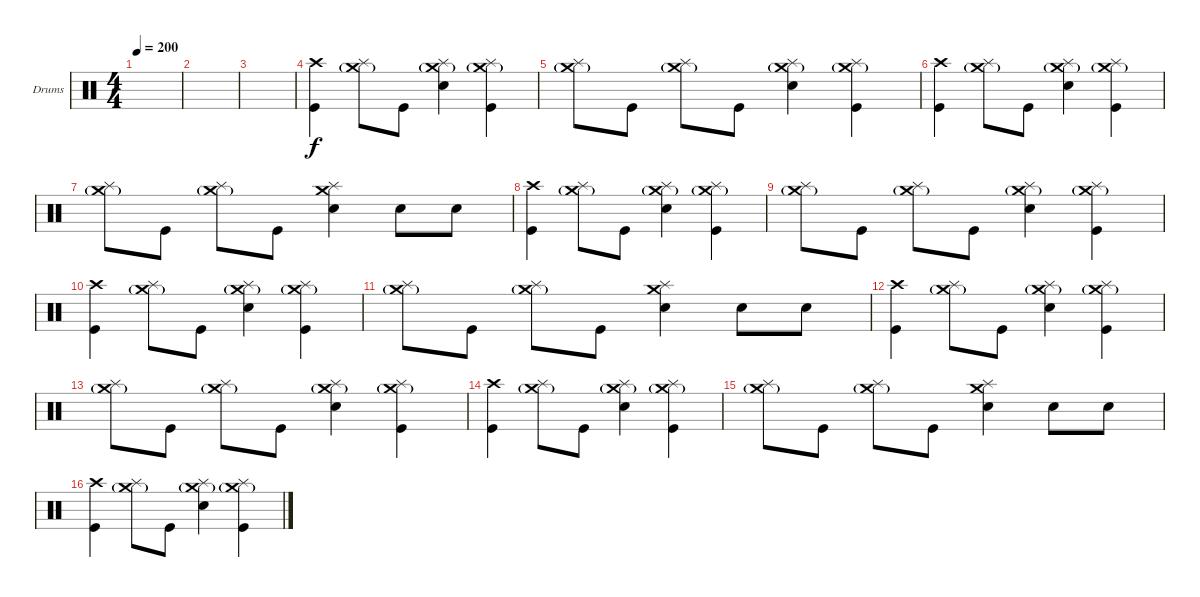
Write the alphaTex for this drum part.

\bracketExtendMode groupsimilarinstruments
\firstSystemTrackNameOrientation horizontal
\otherSystemsTrackNameOrientation horizontal
\track ("Canadien" "Drums") {instrument percussion}
\staff {score}
\articulation defaults
\ts (4 4)
\tempo 200
\clef neutral
\ks c
|
|
|
("Crash high (hit)" "Kick (hit)").4 ("Crash medium (hit)"{g} "Splash (hit)").8 "Kick (hit)".8 ("Crash medium (hit)"{g} "Splash (hit)" "Snare (hit) 2").4 ("Crash medium (hit)"{g} "Splash (hit)" "Kick (hit)").4 |
("Crash medium (hit)"{g} "Splash (hit)").8 "Kick (hit)".8 ("Crash medium (hit)"{g} "Splash (hit)").8 "Kick (hit)".8 ("Crash medium (hit)"{g} "Splash (hit)" "Snare (hit) 2").4 ("Crash medium (hit)"{g} "Splash (hit)" "Kick (hit)").4 |
("Crash high (hit)" "Kick (hit)").4 ("Crash medium (hit)"{g} "Splash (hit)").8 "Kick (hit)".8 ("Crash medium (hit)"{g} "Splash (hit)" "Snare (hit) 2").4 ("Crash medium (hit)"{g} "Splash (hit)" "Kick (hit)").4 |
("Crash medium (hit)"{g} "Splash (hit)").8 "Kick (hit)".8 ("Crash medium (hit)"{g} "Splash (hit)").8 "Kick (hit)".8 ("Crash medium (hit)" "Splash (hit)" "Snare (hit) 2").4 "Snare (hit) 2".8 "Snare (hit) 2".8 |
("Crash high (hit)" "Kick (hit)").4 ("Crash medium (hit)"{g} "Splash (hit)").8 "Kick (hit)".8 ("Crash medium (hit)"{g} "Splash (hit)" "Snare (hit) 2").4 ("Crash medium (hit)"{g} "Splash (hit)" "Kick (hit)").4 |
("Crash medium (hit)"{g} "Splash (hit)").8 "Kick (hit)".8 ("Crash medium (hit)"{g} "Splash (hit)").8 "Kick (hit)".8 ("Crash medium (hit)"{g} "Splash (hit)" "Snare (hit) 2").4 ("Crash medium (hit)"{g} "Splash (hit)" "Kick (hit)").4 |
("Crash high (hit)" "Kick (hit)").4 ("Crash medium (hit)"{g} "Splash (hit)").8 "Kick (hit)".8 ("Crash medium (hit)"{g} "Splash (hit)" "Snare (hit) 2").4 ("Crash medium (hit)"{g} "Splash (hit)" "Kick (hit)").4 |
("Crash medium (hit)"{g} "Splash (hit)").8 "Kick (hit)".8 ("Crash medium (hit)"{g} "Splash (hit)").8 "Kick (hit)".8 ("Crash medium (hit)" "Splash (hit)" "Snare (hit) 2").4 "Snare (hit) 2".8 "Snare (hit) 2".8 |
("Crash high (hit)" "Kick (hit)").4 ("Crash medium (hit)"{g} "Splash (hit)").8 "Kick (hit)".8 ("Crash medium (hit)"{g} "Splash (hit)" "Snare (hit) 2").4 ("Crash medium (hit)"{g} "Splash (hit)" "Kick (hit)").4 |
("Crash medium (hit)"{g} "Splash (hit)").8 "Kick (hit)".8 ("Crash medium (hit)"{g} "Splash (hit)").8 "Kick (hit)".8 ("Crash medium (hit)"{g} "Splash (hit)" "Snare (hit) 2").4 ("Crash medium (hit)"{g} "Splash (hit)" "Kick (hit)").4 |
("Crash high (hit)" "Kick (hit)").4 ("Crash medium (hit)"{g} "Splash (hit)").8 "Kick (hit)".8 ("Crash medium (hit)"{g} "Splash (hit)" "Snare (hit) 2").4 ("Crash medium (hit)"{g} "Splash (hit)" "Kick (hit)").4 |
("Crash medium (hit)"{g} "Splash (hit)").8 "Kick (hit)".8 ("Crash medium (hit)"{g} "Splash (hit)").8 "Kick (hit)".8 ("Crash medium (hit)" "Splash (hit)" "Snare (hit) 2").4 "Snare (hit) 2".8 "Snare (hit) 2".8 |
("Crash high (hit)" "Kick (hit)").4 ("Crash medium (hit)"{g} "Splash (hit)").8 "Kick (hit)".8 ("Crash medium (hit)"{g} "Splash (hit)" "Snare (hit) 2").4 ("Crash medium (hit)"{g} "Splash (hit)" "Kick (hit)").4
